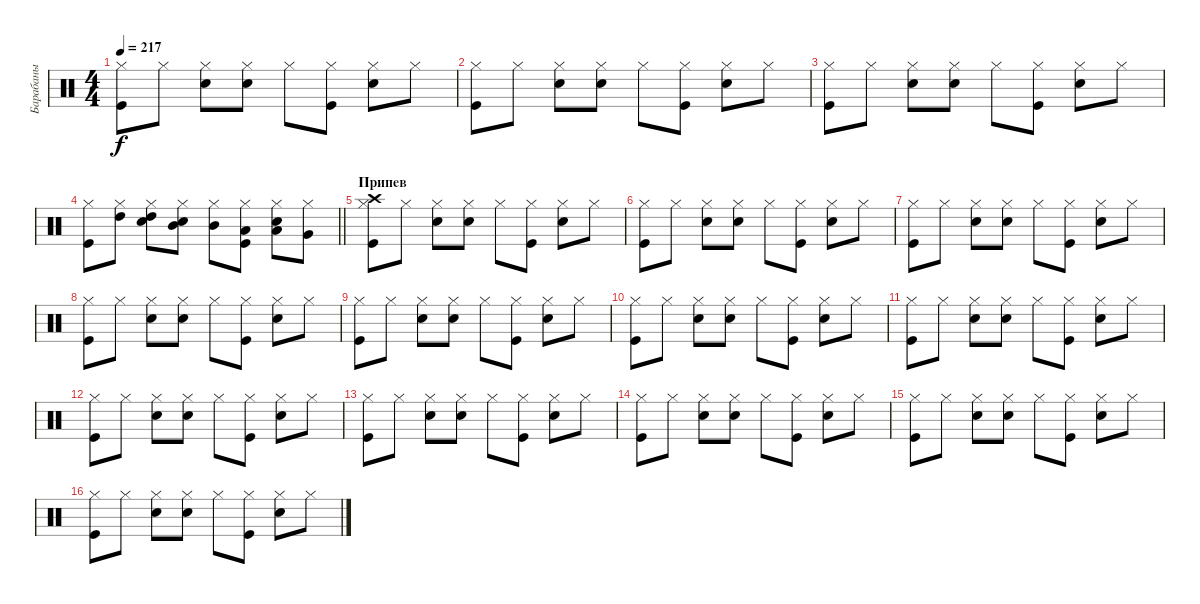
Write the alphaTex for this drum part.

\track ("Барабаны" "Барабаны") {instrument percussion}
\staff {score}
\articulation defaults
\ts (4 4)
\tempo 217
\clef neutral
\ks c
("Kick (hit)" "Hi-Hat (closed)").8{dy f} "Hi-Hat (closed)".8 ("Snare (hit) 2" "Hi-Hat (closed)").8 ("Snare (hit) 2" "Hi-Hat (closed)").8 "Hi-Hat (closed)".8 ("Kick (hit)" "Hi-Hat (closed)").8 ("Snare (hit) 2" "Hi-Hat (closed)").8 "Hi-Hat (closed)".8 |
("Kick (hit)" "Hi-Hat (closed)").8 "Hi-Hat (closed)".8 ("Snare (hit) 2" "Hi-Hat (closed)").8 ("Snare (hit) 2" "Hi-Hat (closed)").8 "Hi-Hat (closed)".8 ("Kick (hit)" "Hi-Hat (closed)").8 ("Snare (hit) 2" "Hi-Hat (closed)").8 "Hi-Hat (closed)".8 |
("Kick (hit)" "Hi-Hat (closed)").8 "Hi-Hat (closed)".8 ("Snare (hit) 2" "Hi-Hat (closed)").8 ("Snare (hit) 2" "Hi-Hat (closed)").8 "Hi-Hat (closed)".8 ("Kick (hit)" "Hi-Hat (closed)").8 ("Snare (hit) 2" "Hi-Hat (closed)").8 "Hi-Hat (closed)".8 |
\barLineRight lightlight
("Kick (hit)" "Hi-Hat (closed)").8 ("Hi-Hat (closed)" "High Tom (hit)").8 ("Snare (hit) 2" "Hi-Hat (closed)" "High Tom (hit)").8 ("Snare (hit) 2" "Hi-Hat (closed)" "Mid Tom (hit)").8 ("Hi-Hat (closed)" "Mid Tom (hit)").8 ("Kick (hit)" "Hi-Hat (closed)" "Low Tom (hit)").8 ("Snare (hit) 2" "Hi-Hat (closed)" "Low Tom (hit)").8 ("Hi-Hat (closed)" "Very Low Tom (hit)").8 |
\section ("" "Припев")
("Kick (hit)" "Hi-Hat (closed)" "Crash high (hit)").8 "Hi-Hat (closed)".8 ("Snare (hit) 2" "Hi-Hat (closed)").8 ("Snare (hit) 2" "Hi-Hat (closed)").8 "Hi-Hat (closed)".8 ("Kick (hit)" "Hi-Hat (closed)").8 ("Snare (hit) 2" "Hi-Hat (closed)").8 "Hi-Hat (closed)".8 |
("Kick (hit)" "Hi-Hat (closed)").8 "Hi-Hat (closed)".8 ("Snare (hit) 2" "Hi-Hat (closed)").8 ("Snare (hit) 2" "Hi-Hat (closed)").8 "Hi-Hat (closed)".8 ("Kick (hit)" "Hi-Hat (closed)").8 ("Snare (hit) 2" "Hi-Hat (closed)").8 "Hi-Hat (closed)".8 |
("Kick (hit)" "Hi-Hat (closed)").8 "Hi-Hat (closed)".8 ("Snare (hit) 2" "Hi-Hat (closed)").8 ("Snare (hit) 2" "Hi-Hat (closed)").8 "Hi-Hat (closed)".8 ("Kick (hit)" "Hi-Hat (closed)").8 ("Snare (hit) 2" "Hi-Hat (closed)").8 "Hi-Hat (closed)".8 |
("Kick (hit)" "Hi-Hat (closed)").8 "Hi-Hat (closed)".8 ("Snare (hit) 2" "Hi-Hat (closed)").8 ("Snare (hit) 2" "Hi-Hat (closed)").8 "Hi-Hat (closed)".8 ("Kick (hit)" "Hi-Hat (closed)").8 ("Snare (hit) 2" "Hi-Hat (closed)").8 "Hi-Hat (closed)".8 |
("Kick (hit)" "Hi-Hat (closed)").8 "Hi-Hat (closed)".8 ("Snare (hit) 2" "Hi-Hat (closed)").8 ("Snare (hit) 2" "Hi-Hat (closed)").8 "Hi-Hat (closed)".8 ("Kick (hit)" "Hi-Hat (closed)").8 ("Snare (hit) 2" "Hi-Hat (closed)").8 "Hi-Hat (closed)".8 |
("Kick (hit)" "Hi-Hat (closed)").8 "Hi-Hat (closed)".8 ("Snare (hit) 2" "Hi-Hat (closed)").8 ("Snare (hit) 2" "Hi-Hat (closed)").8 "Hi-Hat (closed)".8 ("Kick (hit)" "Hi-Hat (closed)").8 ("Snare (hit) 2" "Hi-Hat (closed)").8 "Hi-Hat (closed)".8 |
("Kick (hit)" "Hi-Hat (closed)").8 "Hi-Hat (closed)".8 ("Snare (hit) 2" "Hi-Hat (closed)").8 ("Snare (hit) 2" "Hi-Hat (closed)").8 "Hi-Hat (closed)".8 ("Kick (hit)" "Hi-Hat (closed)").8 ("Snare (hit) 2" "Hi-Hat (closed)").8 "Hi-Hat (closed)".8 |
("Kick (hit)" "Hi-Hat (closed)").8 "Hi-Hat (closed)".8 ("Snare (hit) 2" "Hi-Hat (closed)").8 ("Snare (hit) 2" "Hi-Hat (closed)").8 "Hi-Hat (closed)".8 ("Kick (hit)" "Hi-Hat (closed)").8 ("Snare (hit) 2" "Hi-Hat (closed)").8 "Hi-Hat (closed)".8 |
("Kick (hit)" "Hi-Hat (closed)").8 "Hi-Hat (closed)".8 ("Snare (hit) 2" "Hi-Hat (closed)").8 ("Snare (hit) 2" "Hi-Hat (closed)").8 "Hi-Hat (closed)".8 ("Kick (hit)" "Hi-Hat (closed)").8 ("Snare (hit) 2" "Hi-Hat (closed)").8 "Hi-Hat (closed)".8 |
("Kick (hit)" "Hi-Hat (closed)").8 "Hi-Hat (closed)".8 ("Snare (hit) 2" "Hi-Hat (closed)").8 ("Snare (hit) 2" "Hi-Hat (closed)").8 "Hi-Hat (closed)".8 ("Kick (hit)" "Hi-Hat (closed)").8 ("Snare (hit) 2" "Hi-Hat (closed)").8 "Hi-Hat (closed)".8 |
("Kick (hit)" "Hi-Hat (closed)").8 "Hi-Hat (closed)".8 ("Snare (hit) 2" "Hi-Hat (closed)").8 ("Snare (hit) 2" "Hi-Hat (closed)").8 "Hi-Hat (closed)".8 ("Kick (hit)" "Hi-Hat (closed)").8 ("Snare (hit) 2" "Hi-Hat (closed)").8 "Hi-Hat (closed)".8 |
("Kick (hit)" "Hi-Hat (closed)").8 "Hi-Hat (closed)".8 ("Snare (hit) 2" "Hi-Hat (closed)").8 ("Snare (hit) 2" "Hi-Hat (closed)").8 "Hi-Hat (closed)".8 ("Kick (hit)" "Hi-Hat (closed)").8 ("Snare (hit) 2" "Hi-Hat (closed)").8 "Hi-Hat (closed)".8
